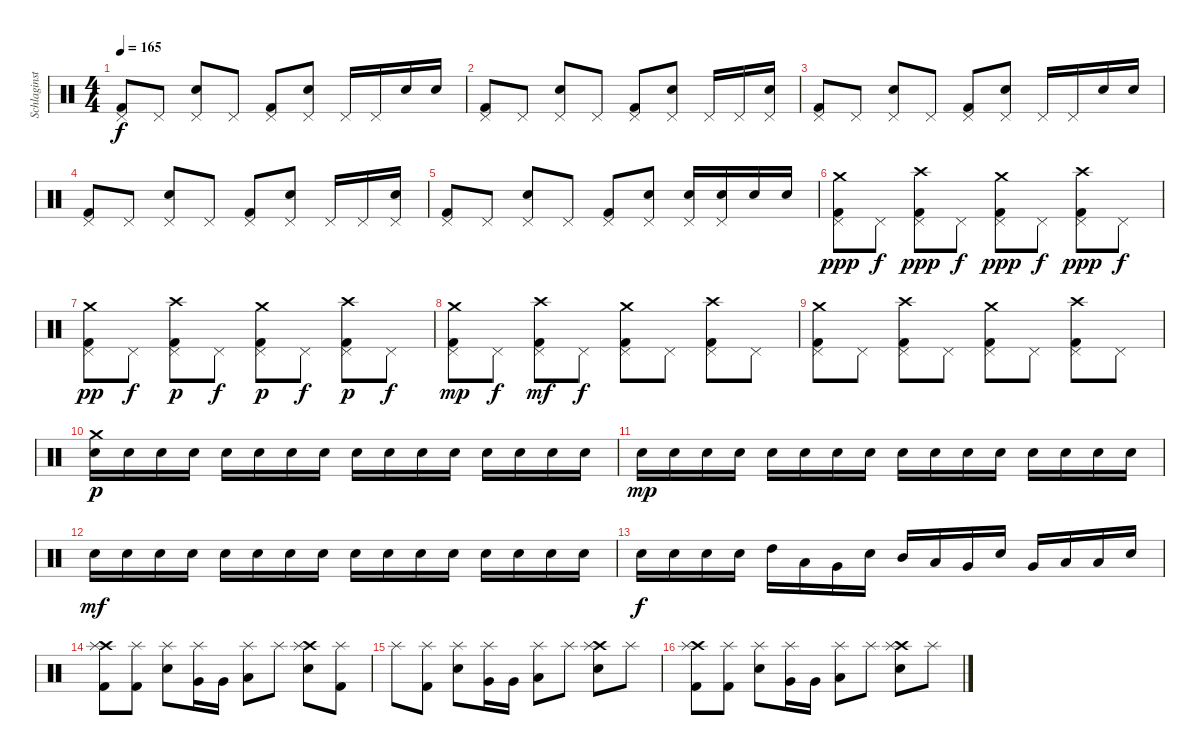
\track ("Schlaginstrumente - Auswahl" "Schlaginst") {instrument percussion}
\staff {score}
\articulation defaults
\ts (4 4)
\tempo 165
\clef neutral
\ks c
("Pedal Hi-Hat (hit)" "Kick (hit) 2").8{dy f} "Pedal Hi-Hat (hit)".8 ("Pedal Hi-Hat (hit)" "Electric Snare (hit)").8 "Pedal Hi-Hat (hit)".8 ("Pedal Hi-Hat (hit)" "Kick (hit) 2").8 ("Pedal Hi-Hat (hit)" "Electric Snare (hit)").8 "Pedal Hi-Hat (hit)".16 "Pedal Hi-Hat (hit)".16 "Electric Snare (hit)".16 "Electric Snare (hit)".16 |
("Pedal Hi-Hat (hit)" "Kick (hit) 2").8 "Pedal Hi-Hat (hit)".8 ("Pedal Hi-Hat (hit)" "Electric Snare (hit)").8 "Pedal Hi-Hat (hit)".8 ("Pedal Hi-Hat (hit)" "Kick (hit) 2").8 ("Pedal Hi-Hat (hit)" "Electric Snare (hit)").8 "Pedal Hi-Hat (hit)".16 "Pedal Hi-Hat (hit)".16 ("Pedal Hi-Hat (hit)" "Electric Snare (hit)").16 |
("Pedal Hi-Hat (hit)" "Kick (hit) 2").8 "Pedal Hi-Hat (hit)".8 ("Pedal Hi-Hat (hit)" "Electric Snare (hit)").8 "Pedal Hi-Hat (hit)".8 ("Pedal Hi-Hat (hit)" "Kick (hit) 2").8 ("Pedal Hi-Hat (hit)" "Electric Snare (hit)").8 "Pedal Hi-Hat (hit)".16 "Pedal Hi-Hat (hit)".16 "Electric Snare (hit)".16 "Electric Snare (hit)".16 |
("Pedal Hi-Hat (hit)" "Kick (hit) 2").8 "Pedal Hi-Hat (hit)".8 ("Pedal Hi-Hat (hit)" "Electric Snare (hit)").8 "Pedal Hi-Hat (hit)".8 ("Pedal Hi-Hat (hit)" "Kick (hit) 2").8 ("Pedal Hi-Hat (hit)" "Electric Snare (hit)").8 "Pedal Hi-Hat (hit)".16 "Pedal Hi-Hat (hit)".16 ("Pedal Hi-Hat (hit)" "Electric Snare (hit)").16 |
("Pedal Hi-Hat (hit)" "Kick (hit) 2").8 "Pedal Hi-Hat (hit)".8 ("Pedal Hi-Hat (hit)" "Electric Snare (hit)").8 "Pedal Hi-Hat (hit)".8 ("Pedal Hi-Hat (hit)" "Kick (hit) 2").8 ("Pedal Hi-Hat (hit)" "Electric Snare (hit)").8 ("Pedal Hi-Hat (hit)" "Electric Snare (hit)").16 ("Pedal Hi-Hat (hit)" "Electric Snare (hit)").16 "Electric Snare (hit)".16 "Electric Snare (hit)".16 |
("Crash medium (hit)" "Pedal Hi-Hat (hit)" "Kick (hit) 2").8{dy ppp} "Pedal Hi-Hat (hit)".8{dy f} ("Crash high (hit)" "Pedal Hi-Hat (hit)" "Kick (hit) 2").8{dy ppp} "Pedal Hi-Hat (hit)".8{dy f} ("Crash medium (hit)" "Pedal Hi-Hat (hit)" "Kick (hit) 2").8{dy ppp} "Pedal Hi-Hat (hit)".8{dy f} ("Crash high (hit)" "Pedal Hi-Hat (hit)" "Kick (hit) 2").8{dy ppp} "Pedal Hi-Hat (hit)".8{dy f} |
("Crash medium (hit)" "Pedal Hi-Hat (hit)" "Kick (hit) 2").8{dy pp} "Pedal Hi-Hat (hit)".8{dy f} ("Crash high (hit)" "Pedal Hi-Hat (hit)" "Kick (hit) 2").8{dy p} "Pedal Hi-Hat (hit)".8{dy f} ("Crash medium (hit)" "Pedal Hi-Hat (hit)" "Kick (hit) 2").8{dy p} "Pedal Hi-Hat (hit)".8{dy f} ("Crash high (hit)" "Pedal Hi-Hat (hit)" "Kick (hit) 2").8{dy p} "Pedal Hi-Hat (hit)".8{dy f} |
("Crash medium (hit)" "Pedal Hi-Hat (hit)" "Kick (hit) 2").8{dy mp} "Pedal Hi-Hat (hit)".8{dy f} ("Crash high (hit)" "Pedal Hi-Hat (hit)" "Kick (hit) 2").8{dy mf} "Pedal Hi-Hat (hit)".8{dy f} ("Crash medium (hit)" "Pedal Hi-Hat (hit)" "Kick (hit) 2").8 "Pedal Hi-Hat (hit)".8 ("Crash high (hit)" "Pedal Hi-Hat (hit)" "Kick (hit) 2").8 "Pedal Hi-Hat (hit)".8 |
("Crash medium (hit)" "Pedal Hi-Hat (hit)" "Kick (hit) 2").8 "Pedal Hi-Hat (hit)".8 ("Crash high (hit)" "Pedal Hi-Hat (hit)" "Kick (hit) 2").8 "Pedal Hi-Hat (hit)".8 ("Crash medium (hit)" "Pedal Hi-Hat (hit)" "Kick (hit) 2").8 "Pedal Hi-Hat (hit)".8 ("Crash high (hit)" "Pedal Hi-Hat (hit)" "Kick (hit) 2").8 "Pedal Hi-Hat (hit)".8 |
("Crash medium (hit)" "Electric Snare (hit)").16{dy p} "Electric Snare (hit)".16 "Electric Snare (hit)".16 "Electric Snare (hit)".16 "Electric Snare (hit)".16 "Electric Snare (hit)".16 "Electric Snare (hit)".16 "Electric Snare (hit)".16 "Electric Snare (hit)".16 "Electric Snare (hit)".16 "Electric Snare (hit)".16 "Electric Snare (hit)".16 "Electric Snare (hit)".16 "Electric Snare (hit)".16 "Electric Snare (hit)".16 "Electric Snare (hit)".16 |
"Electric Snare (hit)".16{dy mp} "Electric Snare (hit)".16 "Electric Snare (hit)".16 "Electric Snare (hit)".16 "Electric Snare (hit)".16 "Electric Snare (hit)".16 "Electric Snare (hit)".16 "Electric Snare (hit)".16 "Electric Snare (hit)".16 "Electric Snare (hit)".16 "Electric Snare (hit)".16 "Electric Snare (hit)".16 "Electric Snare (hit)".16 "Electric Snare (hit)".16 "Electric Snare (hit)".16 "Electric Snare (hit)".16 |
"Electric Snare (hit)".16{dy mf} "Electric Snare (hit)".16 "Electric Snare (hit)".16 "Electric Snare (hit)".16 "Electric Snare (hit)".16 "Electric Snare (hit)".16 "Electric Snare (hit)".16 "Electric Snare (hit)".16 "Electric Snare (hit)".16 "Electric Snare (hit)".16 "Electric Snare (hit)".16 "Electric Snare (hit)".16 "Electric Snare (hit)".16 "Electric Snare (hit)".16 "Electric Snare (hit)".16 "Electric Snare (hit)".16 |
"Electric Snare (hit)".16{dy f} "Electric Snare (hit)".16 "Electric Snare (hit)".16 "Electric Snare (hit)".16 "High Tom (hit)".16 "Low Tom (hit)".16 "Very Low Tom (hit)".16 "Electric Snare (hit)".16 "Mid Tom (hit)".16 "Low Tom (hit)".16 "Very Low Tom (hit)".16 "Electric Snare (hit)".16 "Very Low Tom (hit)".16 "Low Floor Tom (hit)".16 "Low Floor Tom (hit)".16 "Electric Snare (hit)".16 |
("Crash high (hit)" "Splash (hit)" "Kick (hit) 2").8 ("Splash (hit)" "Kick (hit) 2").8 ("Splash (hit)" "Electric Snare (hit)").8 ("Very Low Tom (hit)" "Splash (hit)").16 "Very Low Tom (hit)".16 ("Low Floor Tom (hit)" "Splash (hit)").8 "Splash (hit)".8 ("Crash high (hit)" "Splash (hit)" "Electric Snare (hit)").8 ("Splash (hit)" "Kick (hit) 2").8 |
"Splash (hit)".8 ("Splash (hit)" "Kick (hit) 2").8 ("Splash (hit)" "Electric Snare (hit)").8 ("Very Low Tom (hit)" "Splash (hit)").16 "Very Low Tom (hit)".16 ("Low Floor Tom (hit)" "Splash (hit)").8 "Splash (hit)".8 ("Crash high (hit)" "Splash (hit)" "Electric Snare (hit)").8 "Splash (hit)".8 |
("Crash high (hit)" "Splash (hit)" "Kick (hit) 2").8 ("Splash (hit)" "Kick (hit) 2").8 ("Splash (hit)" "Electric Snare (hit)").8 ("Very Low Tom (hit)" "Splash (hit)").16 "Very Low Tom (hit)".16 ("Low Floor Tom (hit)" "Splash (hit)").8 "Splash (hit)".8 ("Crash high (hit)" "Splash (hit)" "Electric Snare (hit)").8 "Splash (hit)".8
